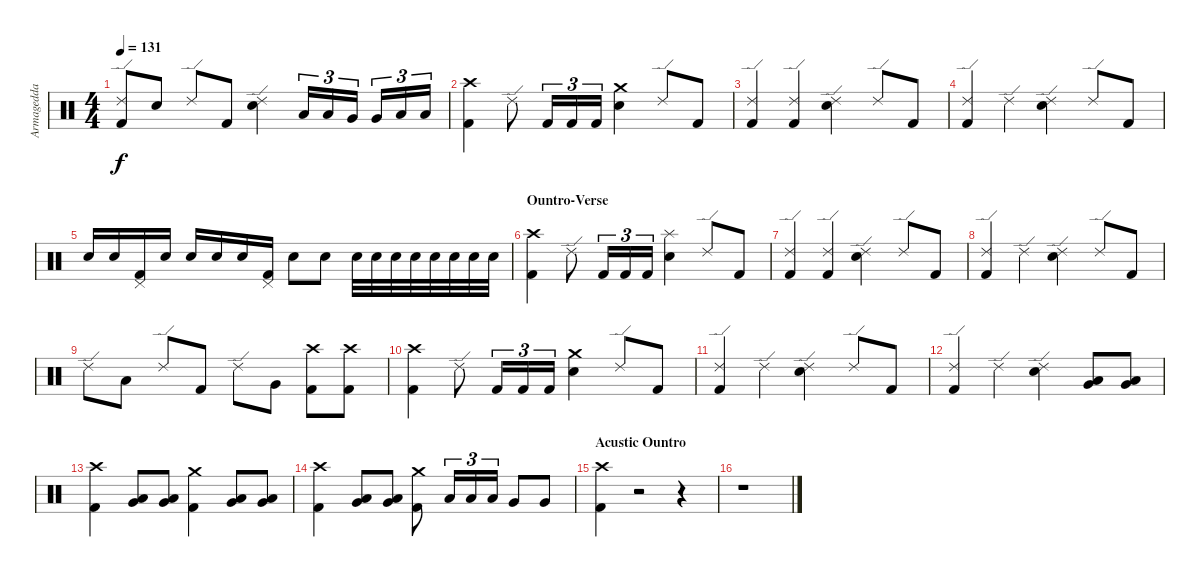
\track ("Armagedda" "Armagedda") {instrument percussion}
\staff {score}
\articulation defaults
\ts (4 4)
\tempo 131
\clef neutral
\ks c
("Ride (edge) 2" "Kick (hit) 2").8{dy f} "Electric Snare (hit)".8 "Ride (edge) 2".8 "Kick (hit) 2".8 ("Ride (edge) 2" "Electric Snare (hit)").4 "Low Tom (hit)".16{tu (3 2)} "Low Tom (hit)".16{tu (3 2)} "Very Low Tom (hit)".16{tu (3 2)} "Very Low Tom (hit)".16{tu (3 2)} "Low Floor Tom (hit)".16{tu (3 2)} "Low Floor Tom (hit)".16{tu (3 2)} |
("Crash high (hit)" "Kick (hit) 2").4 "Ride (edge) 2".8 "Kick (hit) 2".16{tu (3 2)} "Kick (hit) 2".16{tu (3 2)} "Kick (hit) 2".16{tu (3 2)} ("Crash medium (hit)" "Electric Snare (hit)").4 "Ride (edge) 2".8 "Kick (hit) 2".8 |
("Ride (edge) 2" "Kick (hit) 2").4 ("Ride (edge) 2" "Kick (hit) 2").4 ("Ride (edge) 2" "Electric Snare (hit)").4 "Ride (edge) 2".8 "Kick (hit) 2".8 |
("Ride (edge) 2" "Kick (hit) 2").4 "Ride (edge) 2".4 ("Ride (edge) 2" "Electric Snare (hit)").4 "Ride (edge) 2".8 "Kick (hit) 2".8 |
"Electric Snare (hit)".16 "Electric Snare (hit)".16 ("Pedal Hi-Hat (hit)" "Kick (hit) 2").16 "Electric Snare (hit)".16 "Electric Snare (hit)".16 "Electric Snare (hit)".16 "Electric Snare (hit)".16 ("Pedal Hi-Hat (hit)" "Kick (hit) 2").16 "Electric Snare (hit)".8 "Electric Snare (hit)".8 "Electric Snare (hit)".32 "Electric Snare (hit)".32 "Electric Snare (hit)".32 "Electric Snare (hit)".32 "Electric Snare (hit)".32 "Electric Snare (hit)".32 "Electric Snare (hit)".32 "Electric Snare (hit)".32 |
\section ("" "Ountro-Verse")
("Crash high (hit)" "Kick (hit) 2").4 "Ride (edge) 2".8 "Kick (hit) 2".16{tu (3 2)} "Kick (hit) 2".16{tu (3 2)} "Kick (hit) 2".16{tu (3 2)} ("Splash (hit)" "Electric Snare (hit)").4 "Ride (edge) 2".8 "Kick (hit) 2".8 |
("Ride (edge) 2" "Kick (hit) 2").4 ("Ride (edge) 2" "Kick (hit) 2").4 ("Ride (edge) 2" "Electric Snare (hit)").4 "Ride (edge) 2".8 "Kick (hit) 2".8 |
("Ride (edge) 2" "Kick (hit) 2").4 "Ride (edge) 2".4 ("Ride (edge) 2" "Electric Snare (hit)").4 "Ride (edge) 2".8 "Kick (hit) 2".8 |
"Ride (edge) 2".8 "Low Tom (hit)".8 "Ride (edge) 2".8 "Kick (hit) 2".8 "Ride (edge) 2".8 "Very Low Tom (hit)".8 ("Crash high (hit)" "Kick (hit) 2").8 ("Crash high (hit)" "Kick (hit) 2").8 |
("Crash high (hit)" "Kick (hit) 2").4 "Ride (edge) 2".8 "Kick (hit) 2".16{tu (3 2)} "Kick (hit) 2".16{tu (3 2)} "Kick (hit) 2".16{tu (3 2)} ("Crash medium (hit)" "Electric Snare (hit)").4 "Ride (edge) 2".8 "Kick (hit) 2".8 |
("Ride (edge) 2" "Kick (hit) 2").4 "Ride (edge) 2".4 ("Ride (edge) 2" "Electric Snare (hit)").4 "Ride (edge) 2".8 "Kick (hit) 2".8 |
("Ride (edge) 2" "Kick (hit) 2").4 "Ride (edge) 2".4 ("Ride (edge) 2" "Electric Snare (hit)").4 ("Very Low Tom (hit)" "Low Tom (hit)").8 ("Very Low Tom (hit)" "Low Tom (hit)").8 |
("Crash high (hit)" "Kick (hit) 2").4 ("Low Floor Tom (hit)" "Very Low Tom (hit)").8 ("Low Floor Tom (hit)" "Very Low Tom (hit)").8 ("Crash medium (hit)" "Kick (hit) 2").4 ("Very Low Tom (hit)" "Low Tom (hit)").8 ("Very Low Tom (hit)" "Low Tom (hit)").8 |
("Crash high (hit)" "Kick (hit) 2").4 ("Low Floor Tom (hit)" "Very Low Tom (hit)").8 ("Low Floor Tom (hit)" "Very Low Tom (hit)").8 ("Crash medium (hit)" "Kick (hit) 2").8 "Low Tom (hit)".16{tu (3 2)} "Low Tom (hit)".16{tu (3 2)} "Low Tom (hit)".16{tu (3 2)} "Very Low Tom (hit)".8 "Very Low Tom (hit)".8 |
\section ("" "Acustic Ountro")
("Crash high (hit)" "Kick (hit) 2").4{volume 16} r.2 r.4 |
r.1
